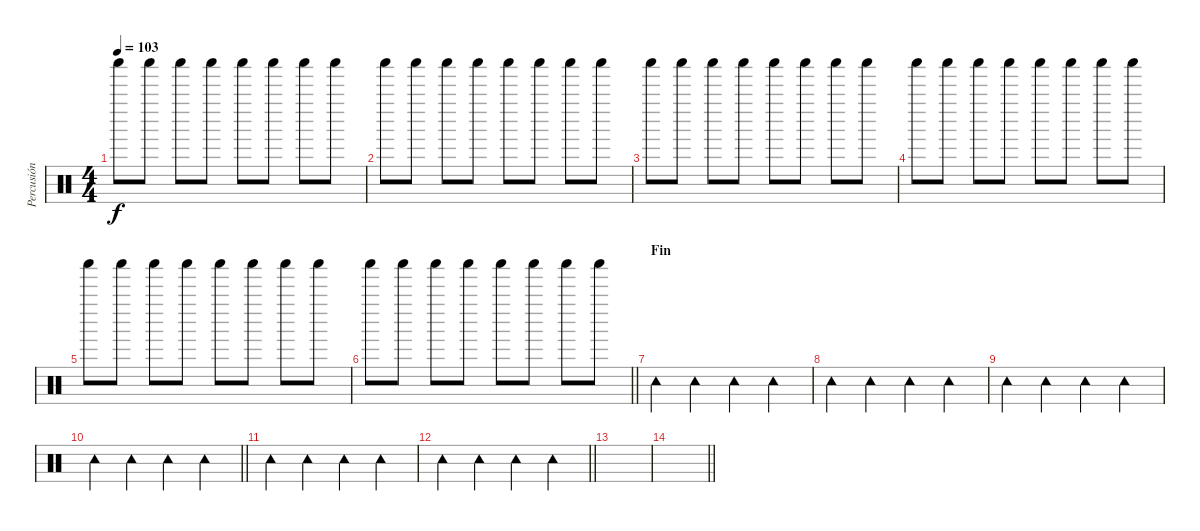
\track ("Percusión" "Percusión") {instrument percussion}
\staff {score}
\articulation defaults
\ts (4 4)
\tempo 103
\clef neutral
\ks c "Shaker (hit)".8{dy f} "Shaker (hit)".8 "Shaker (hit)".8 "Shaker (hit)".8 "Shaker (hit)".8 "Shaker (hit)".8 "Shaker (hit)".8 "Shaker (hit)".8
|
"Shaker (hit)".8 "Shaker (hit)".8 "Shaker (hit)".8 "Shaker (hit)".8 "Shaker (hit)".8 "Shaker (hit)".8 "Shaker (hit)".8 "Shaker (hit)".8 |
"Shaker (hit)".8 "Shaker (hit)".8 "Shaker (hit)".8 "Shaker (hit)".8 "Shaker (hit)".8 "Shaker (hit)".8 "Shaker (hit)".8 "Shaker (hit)".8 |
"Shaker (hit)".8 "Shaker (hit)".8 "Shaker (hit)".8 "Shaker (hit)".8 "Shaker (hit)".8 "Shaker (hit)".8 "Shaker (hit)".8 "Shaker (hit)".8 |
"Shaker (hit)".8 "Shaker (hit)".8 "Shaker (hit)".8 "Shaker (hit)".8 "Shaker (hit)".8 "Shaker (hit)".8 "Shaker (hit)".8 "Shaker (hit)".8 |
\barLineRight lightlight "Shaker (hit)".8 "Shaker (hit)".8 "Shaker (hit)".8 "Shaker (hit)".8 "Shaker (hit)".8 "Shaker (hit)".8 "Shaker (hit)".8 "Shaker (hit)".8
|
\section ("" "Fin")
"Tambourine (hit)".4 "Tambourine (hit)".4 "Tambourine (hit)".4 "Tambourine (hit)".4 |
"Tambourine (hit)".4 "Tambourine (hit)".4 "Tambourine (hit)".4 "Tambourine (hit)".4 |
"Tambourine (hit)".4 "Tambourine (hit)".4 "Tambourine (hit)".4 "Tambourine (hit)".4 |
\barLineRight lightlight "Tambourine (hit)".4 "Tambourine (hit)".4 "Tambourine (hit)".4 "Tambourine (hit)".4
|
"Tambourine (hit)".4 "Tambourine (hit)".4 "Tambourine (hit)".4 "Tambourine (hit)".4 |
\barLineRight lightlight "Tambourine (hit)".4 "Tambourine (hit)".4 "Tambourine (hit)".4 "Tambourine (hit)".4
|
|
\barLineRight lightlight
